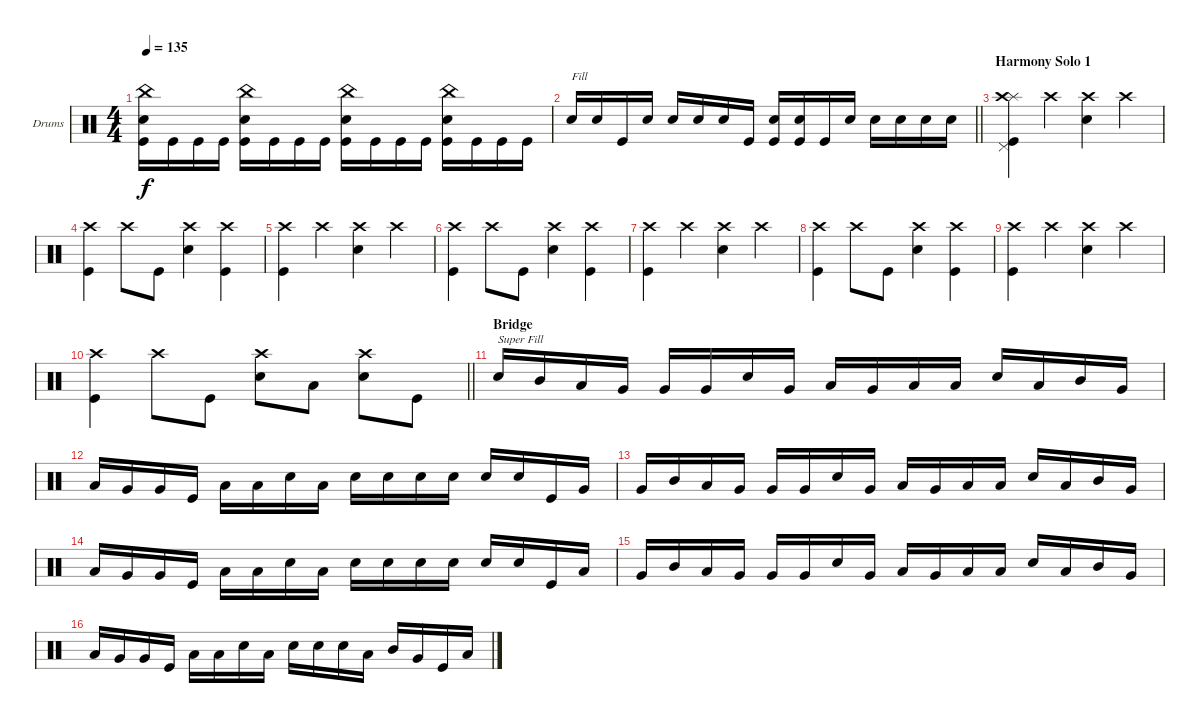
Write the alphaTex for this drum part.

\bracketExtendMode groupsimilarinstruments
\firstSystemTrackNameOrientation horizontal
\otherSystemsTrackNameOrientation horizontal
\track ("Drumkit" "Drums") {instrument percussion}
\staff {score}
\articulation defaults
\ts (4 4)
\tempo 135
\clef neutral
\ks c
("Kick (hit)" "Snare (hit) 2" "China (hit)").16{dy f} "Kick (hit)".16 "Kick (hit)".16 "Kick (hit)".16 ("Kick (hit)" "Snare (hit) 2" "China (hit)").16 "Kick (hit)".16 "Kick (hit)".16 "Kick (hit)".16 ("Kick (hit)" "Snare (hit) 2" "China (hit)").16 "Kick (hit)".16 "Kick (hit)".16 "Kick (hit)".16 ("Kick (hit)" "Snare (hit) 2" "China (hit)").16 "Kick (hit)".16 "Kick (hit)".16 "Kick (hit)".16 |
\barLineRight lightlight "Snare (hit) 2".16{txt "Fill"} "Snare (hit) 2".16 "Kick (hit)".16 "Snare (hit) 2".16 "Snare (hit) 2".16 "Snare (hit) 2".16 "Snare (hit) 2".16 "Kick (hit)".16
("Snare (hit) 2" "Kick (hit)").16 ("Snare (hit) 2" "Kick (hit)").16 "Kick (hit)".16 "Snare (hit) 2".16 "Snare (hit) 2".16 "Snare (hit) 2".16 "Snare (hit) 2".16 "Snare (hit) 2".16 |
\section ("" "Harmony Solo 1")
("Kick (hit)" "Pedal Hi-Hat (hit)" "Splash (hit)" "Crash high (hit)").4 "Crash high (hit)".4 ("Snare (hit) 2" "Crash high (hit)").4 "Crash high (hit)".4 |
("Kick (hit)" "Crash high (hit)").4 "Crash high (hit)".8 "Kick (hit)".8 ("Snare (hit) 2" "Crash high (hit)").4 ("Crash high (hit)" "Kick (hit)").4 |
("Kick (hit)" "Crash high (hit)").4 "Crash high (hit)".4 ("Snare (hit) 2" "Crash high (hit)").4 "Crash high (hit)".4 |
("Kick (hit)" "Crash high (hit)").4 "Crash high (hit)".8 "Kick (hit)".8 ("Snare (hit) 2" "Crash high (hit)").4 ("Crash high (hit)" "Kick (hit)").4 |
("Kick (hit)" "Crash high (hit)").4 "Crash high (hit)".4 ("Snare (hit) 2" "Crash high (hit)").4 "Crash high (hit)".4 |
("Kick (hit)" "Crash high (hit)").4 "Crash high (hit)".8 "Kick (hit)".8 ("Snare (hit) 2" "Crash high (hit)").4 ("Crash high (hit)" "Kick (hit)").4 |
("Kick (hit)" "Crash high (hit)").4 "Crash high (hit)".4 ("Snare (hit) 2" "Crash high (hit)").4 "Crash high (hit)".4 |
\barLineRight lightlight
("Kick (hit)" "Crash high (hit)").4 "Crash high (hit)".8 "Kick (hit)".8 ("Snare (hit) 2" "Crash high (hit)").8 "Low Tom (hit)".8 ("Crash high (hit)" "Snare (hit) 2").8 "Kick (hit)".8 |
\section ("" "Bridge")
"Snare (hit) 2".16{txt "Super Fill"} "Mid Tom (hit)".16 "Low Tom (hit)".16 "Very Low Tom (hit)".16 "Very Low Tom (hit)".16 "Very Low Tom (hit)".16 "Snare (hit) 2".16 "Very Low Tom (hit)".16 "Low Tom (hit)".16 "Very Low Tom (hit)".16 "Low Tom (hit)".16 "Low Tom (hit)".16 "Snare (hit) 2".16 "Low Tom (hit)".16 "Mid Tom (hit)".16 "Very Low Tom (hit)".16 |
"Low Tom (hit)".16 "Very Low Tom (hit)".16 "Very Low Tom (hit)".16 "Kick (hit)".16 "Low Tom (hit)".16 "Low Tom (hit)".16 "Snare (hit) 2".16 "Low Tom (hit)".16 "Snare (hit) 2".16 "Snare (hit) 2".16 "Snare (hit) 2".16 "Snare (hit) 2".16 "Snare (hit) 2".16 "Snare (hit) 2".16 "Kick (hit)".16 "Very Low Tom (hit)".16 |
"Very Low Tom (hit)".16 "Mid Tom (hit)".16 "Low Tom (hit)".16 "Very Low Tom (hit)".16 "Very Low Tom (hit)".16 "Very Low Tom (hit)".16 "Snare (hit) 2".16 "Very Low Tom (hit)".16 "Low Tom (hit)".16 "Very Low Tom (hit)".16 "Low Tom (hit)".16 "Low Tom (hit)".16 "Snare (hit) 2".16 "Low Tom (hit)".16 "Mid Tom (hit)".16 "Very Low Tom (hit)".16 |
"Low Tom (hit)".16 "Very Low Tom (hit)".16 "Very Low Tom (hit)".16 "Kick (hit)".16 "Low Tom (hit)".16 "Low Tom (hit)".16 "Snare (hit) 2".16 "Low Tom (hit)".16 "Snare (hit) 2".16 "Snare (hit) 2".16 "Snare (hit) 2".16 "Snare (hit) 2".16 "Snare (hit) 2".16 "Snare (hit) 2".16 "Kick (hit)".16 "Low Tom (hit)".16 |
"Very Low Tom (hit)".16 "Mid Tom (hit)".16 "Low Tom (hit)".16 "Very Low Tom (hit)".16 "Very Low Tom (hit)".16 "Very Low Tom (hit)".16 "Snare (hit) 2".16 "Very Low Tom (hit)".16 "Low Tom (hit)".16 "Very Low Tom (hit)".16 "Low Tom (hit)".16 "Low Tom (hit)".16 "Snare (hit) 2".16 "Low Tom (hit)".16 "Mid Tom (hit)".16 "Very Low Tom (hit)".16 |
"Low Tom (hit)".16 "Very Low Tom (hit)".16 "Very Low Tom (hit)".16 "Kick (hit)".16 "Low Tom (hit)".16 "Low Tom (hit)".16 "Snare (hit) 2".16 "Low Tom (hit)".16 "Snare (hit) 2".16 "Snare (hit) 2".16 "Snare (hit) 2".16 "Low Tom (hit)".16 "Mid Tom (hit)".16 "Very Low Tom (hit)".16 "Kick (hit)".16 "Low Tom (hit)".16
